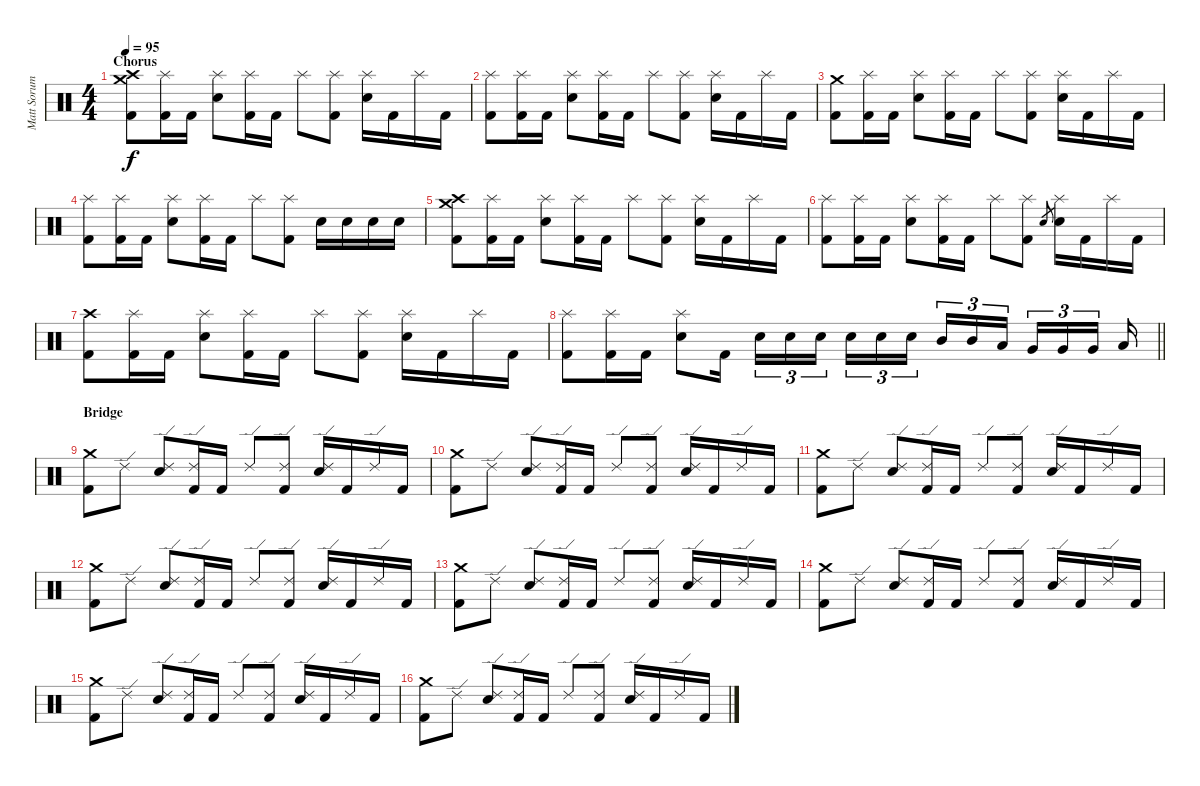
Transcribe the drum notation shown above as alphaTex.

\track ("Matt Sorum" "Matt Sorum") {instrument percussion}
\staff {score}
\articulation defaults
\ts (4 4)
\section ("" "Chorus")
\tempo 95
\clef neutral
\ks c
("Crash medium (hit)" "Crash high (hit)" "Kick (hit) 2").8{dy f} ("Splash (hit)" "Kick (hit) 2").16 "Kick (hit) 2".16 ("Splash (hit)" "Electric Snare (hit)").8 ("Splash (hit)" "Kick (hit) 2").16 "Kick (hit) 2".16 "Splash (hit)".8 ("Splash (hit)" "Kick (hit) 2").8 ("Splash (hit)" "Electric Snare (hit)").16 "Kick (hit) 2".16 "Splash (hit)".16 "Kick (hit) 2".16 |
("Splash (hit)" "Kick (hit) 2").8 ("Splash (hit)" "Kick (hit) 2").16 "Kick (hit) 2".16 ("Splash (hit)" "Electric Snare (hit)").8 ("Splash (hit)" "Kick (hit) 2").16 "Kick (hit) 2".16 "Splash (hit)".8 ("Splash (hit)" "Kick (hit) 2").8 ("Splash (hit)" "Electric Snare (hit)").16 "Kick (hit) 2".16 "Splash (hit)".16 "Kick (hit) 2".16 |
("Crash medium (hit)" "Kick (hit) 2").8 ("Splash (hit)" "Kick (hit) 2").16 "Kick (hit) 2".16 ("Splash (hit)" "Electric Snare (hit)").8 ("Splash (hit)" "Kick (hit) 2").16 "Kick (hit) 2".16 "Splash (hit)".8 ("Splash (hit)" "Kick (hit) 2").8 ("Splash (hit)" "Electric Snare (hit)").16 "Kick (hit) 2".16 "Splash (hit)".16 "Kick (hit) 2".16 |
("Splash (hit)" "Kick (hit) 2").8 ("Splash (hit)" "Kick (hit) 2").16 "Kick (hit) 2".16 ("Splash (hit)" "Electric Snare (hit)").8 ("Splash (hit)" "Kick (hit) 2").16 "Kick (hit) 2".16 "Splash (hit)".8 ("Splash (hit)" "Kick (hit) 2").8 "Electric Snare (hit)".16 "Electric Snare (hit)".16 "Electric Snare (hit)".16 "Electric Snare (hit)".16 |
("Crash medium (hit)" "Crash high (hit)" "Kick (hit) 2").8 ("Splash (hit)" "Kick (hit) 2").16 "Kick (hit) 2".16 ("Splash (hit)" "Electric Snare (hit)").8 ("Splash (hit)" "Kick (hit) 2").16 "Kick (hit) 2".16 "Splash (hit)".8 ("Splash (hit)" "Kick (hit) 2").8 ("Splash (hit)" "Electric Snare (hit)").16 "Kick (hit) 2".16 "Splash (hit)".16 "Kick (hit) 2".16 |
("Splash (hit)" "Kick (hit) 2").8 ("Splash (hit)" "Kick (hit) 2").16 "Kick (hit) 2".16 ("Splash (hit)" "Electric Snare (hit)").8 ("Splash (hit)" "Kick (hit) 2").16 "Kick (hit) 2".16 "Splash (hit)".8 ("Splash (hit)" "Kick (hit) 2").8 "Electric Snare (hit)".8{gr} ("Splash (hit)" "Electric Snare (hit)").16 "Kick (hit) 2".16 "Splash (hit)".16 "Kick (hit) 2".16 |
("Crash high (hit)" "Kick (hit) 2").8 ("Splash (hit)" "Kick (hit) 2").16 "Kick (hit) 2".16 ("Splash (hit)" "Electric Snare (hit)").8 ("Splash (hit)" "Kick (hit) 2").16 "Kick (hit) 2".16 "Splash (hit)".8 ("Splash (hit)" "Kick (hit) 2").8 ("Splash (hit)" "Electric Snare (hit)").16 "Kick (hit) 2".16 "Splash (hit)".16 "Kick (hit) 2".16 |
\barLineRight lightlight
("Splash (hit)" "Kick (hit) 2").8 ("Splash (hit)" "Kick (hit) 2").16 "Kick (hit) 2".16 ("Splash (hit)" "Electric Snare (hit)").8 "Kick (hit) 2".16{beam splitsecondary} "Electric Snare (hit)".16{tu (3 2)} "Electric Snare (hit)".16{tu (3 2)} "Electric Snare (hit)".16{tu (3 2) beam splitsecondary} "Electric Snare (hit)".16{tu (3 2)} "Electric Snare (hit)".16{tu (3 2)} "Electric Snare (hit)".16{tu (3 2) beam splitsecondary} "Mid Tom (hit)".16{tu (3 2)} "Mid Tom (hit)".16{tu (3 2)} "Low Tom (hit)".16{tu (3 2) beam splitsecondary} "Very Low Tom (hit)".16{tu (3 2)} "Very Low Tom (hit)".16{tu (3 2)} "Very Low Tom (hit)".16{tu (3 2) beam splitsecondary} "Low Floor Tom (hit)".16 |
\section ("" "Bridge")
("Crash medium (hit)" "Kick (hit) 2").8 "Ride (edge) 2".8 ("Ride (edge) 2" "Electric Snare (hit)").8 ("Ride (edge) 2" "Kick (hit) 2").16 "Kick (hit) 2".16 "Ride (edge) 2".8 ("Ride (edge) 2" "Kick (hit) 2").8 ("Ride (edge) 2" "Electric Snare (hit)").16 "Kick (hit) 2".16 "Ride (edge) 2".16 "Kick (hit) 2".16 |
("Crash medium (hit)" "Kick (hit) 2").8 "Ride (edge) 2".8 ("Ride (edge) 2" "Electric Snare (hit)").8 ("Ride (edge) 2" "Kick (hit) 2").16 "Kick (hit) 2".16 "Ride (edge) 2".8 ("Ride (edge) 2" "Kick (hit) 2").8 ("Ride (edge) 2" "Electric Snare (hit)").16 "Kick (hit) 2".16 "Ride (edge) 2".16 "Kick (hit) 2".16 |
("Crash medium (hit)" "Kick (hit) 2").8 "Ride (edge) 2".8 ("Ride (edge) 2" "Electric Snare (hit)").8 ("Ride (edge) 2" "Kick (hit) 2").16 "Kick (hit) 2".16 "Ride (edge) 2".8 ("Ride (edge) 2" "Kick (hit) 2").8 ("Ride (edge) 2" "Electric Snare (hit)").16 "Kick (hit) 2".16 "Ride (edge) 2".16 "Kick (hit) 2".16 |
("Crash medium (hit)" "Kick (hit) 2").8 "Ride (edge) 2".8 ("Ride (edge) 2" "Electric Snare (hit)").8 ("Ride (edge) 2" "Kick (hit) 2").16 "Kick (hit) 2".16 "Ride (edge) 2".8 ("Ride (edge) 2" "Kick (hit) 2").8 ("Ride (edge) 2" "Electric Snare (hit)").16 "Kick (hit) 2".16 "Ride (edge) 2".16 "Kick (hit) 2".16 |
("Crash medium (hit)" "Kick (hit) 2").8 "Ride (edge) 2".8 ("Ride (edge) 2" "Electric Snare (hit)").8 ("Ride (edge) 2" "Kick (hit) 2").16 "Kick (hit) 2".16 "Ride (edge) 2".8 ("Ride (edge) 2" "Kick (hit) 2").8 ("Ride (edge) 2" "Electric Snare (hit)").16 "Kick (hit) 2".16 "Ride (edge) 2".16 "Kick (hit) 2".16 |
("Crash medium (hit)" "Kick (hit) 2").8 "Ride (edge) 2".8 ("Ride (edge) 2" "Electric Snare (hit)").8 ("Ride (edge) 2" "Kick (hit) 2").16 "Kick (hit) 2".16 "Ride (edge) 2".8 ("Ride (edge) 2" "Kick (hit) 2").8 ("Ride (edge) 2" "Electric Snare (hit)").16 "Kick (hit) 2".16 "Ride (edge) 2".16 "Kick (hit) 2".16 |
("Crash medium (hit)" "Kick (hit) 2").8 "Ride (edge) 2".8 ("Ride (edge) 2" "Electric Snare (hit)").8 ("Ride (edge) 2" "Kick (hit) 2").16 "Kick (hit) 2".16 "Ride (edge) 2".8 ("Ride (edge) 2" "Kick (hit) 2").8 ("Ride (edge) 2" "Electric Snare (hit)").16 "Kick (hit) 2".16 "Ride (edge) 2".16 "Kick (hit) 2".16 |
("Crash medium (hit)" "Kick (hit) 2").8 "Ride (edge) 2".8 ("Ride (edge) 2" "Electric Snare (hit)").8 ("Ride (edge) 2" "Kick (hit) 2").16 "Kick (hit) 2".16 "Ride (edge) 2".8 ("Ride (edge) 2" "Kick (hit) 2").8 ("Ride (edge) 2" "Electric Snare (hit)").16 "Kick (hit) 2".16 "Ride (edge) 2".16 "Kick (hit) 2".16
